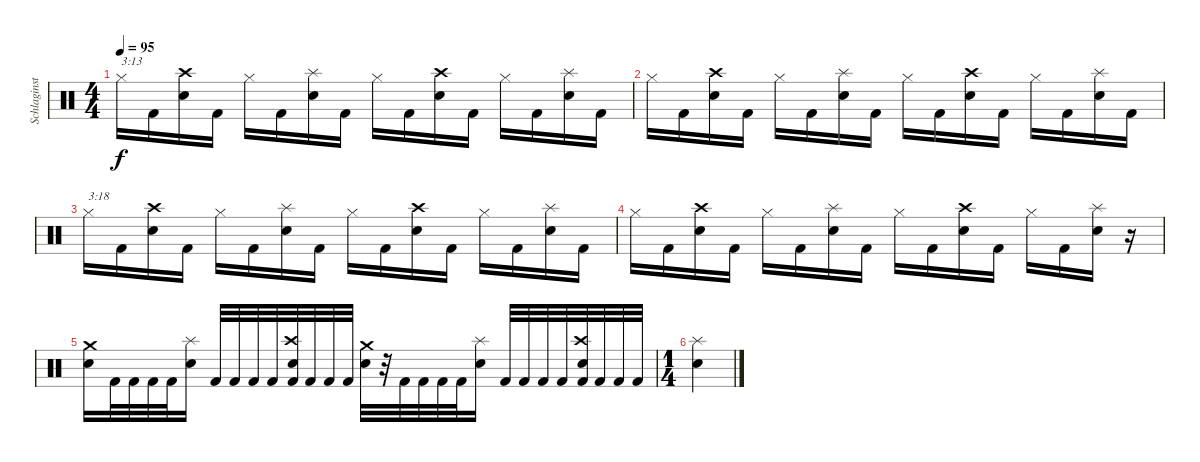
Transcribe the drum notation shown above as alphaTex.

\track ("Schlaginstrumente - Auswahl" "Schlaginst") {instrument percussion}
\staff {score}
\articulation defaults
\ts (4 4)
\tempo 95
\clef neutral
\ks c "Hi-Hat (closed)".16{txt "3:13" dy f} "Kick (hit) 2".16
("Crash high (hit)" "Electric Snare (hit)").16 "Kick (hit) 2".16 "Hi-Hat (closed)".16 "Kick (hit) 2".16 ("Splash (hit)" "Electric Snare (hit)").16 "Kick (hit) 2".16 "Hi-Hat (closed)".16 "Kick (hit) 2".16 ("Crash high (hit)" "Electric Snare (hit)").16 "Kick (hit) 2".16 "Hi-Hat (closed)".16 "Kick (hit) 2".16 ("Splash (hit)" "Electric Snare (hit)").16 "Kick (hit) 2".16 |
"Hi-Hat (closed)".16 "Kick (hit) 2".16 ("Crash high (hit)" "Electric Snare (hit)").16 "Kick (hit) 2".16 "Hi-Hat (closed)".16 "Kick (hit) 2".16 ("Splash (hit)" "Electric Snare (hit)").16 "Kick (hit) 2".16 "Hi-Hat (closed)".16 "Kick (hit) 2".16 ("Crash high (hit)" "Electric Snare (hit)").16 "Kick (hit) 2".16 "Hi-Hat (closed)".16 "Kick (hit) 2".16 ("Splash (hit)" "Electric Snare (hit)").16 "Kick (hit) 2".16 |
"Hi-Hat (closed)".16{txt "3:18"} "Kick (hit) 2".16 ("Crash high (hit)" "Electric Snare (hit)").16 "Kick (hit) 2".16 "Hi-Hat (closed)".16 "Kick (hit) 2".16 ("Splash (hit)" "Electric Snare (hit)").16 "Kick (hit) 2".16 "Hi-Hat (closed)".16 "Kick (hit) 2".16 ("Crash high (hit)" "Electric Snare (hit)").16 "Kick (hit) 2".16 "Hi-Hat (closed)".16 "Kick (hit) 2".16 ("Splash (hit)" "Electric Snare (hit)").16 "Kick (hit) 2".16 |
"Hi-Hat (closed)".16 "Kick (hit) 2".16 ("Crash high (hit)" "Electric Snare (hit)").16 "Kick (hit) 2".16 "Hi-Hat (closed)".16 "Kick (hit) 2".16 ("Splash (hit)" "Electric Snare (hit)").16 "Kick (hit) 2".16 "Hi-Hat (closed)".16 "Kick (hit) 2".16 ("Crash high (hit)" "Electric Snare (hit)").16 "Kick (hit) 2".16 "Hi-Hat (closed)".16 "Kick (hit) 2".16 ("Splash (hit)" "Electric Snare (hit)").16 r.16 |
("Crash medium (hit)" "Electric Snare (hit)").16 "Kick (hit) 2".32 "Kick (hit) 2".32 "Kick (hit) 2".32 "Kick (hit) 2".32 ("Splash (hit)" "Electric Snare (hit)").16 "Kick (hit) 2".32 "Kick (hit) 2".32 "Kick (hit) 2".32 "Kick (hit) 2".32 ("Crash high (hit)" "Electric Snare (hit)" "Kick (hit) 2").32 "Kick (hit) 2".32 "Kick (hit) 2".32 "Kick (hit) 2".32 ("Crash medium (hit)" "Electric Snare (hit)").32 r.32 "Kick (hit) 2".32 "Kick (hit) 2".32 "Kick (hit) 2".32 "Kick (hit) 2".32 ("Splash (hit)" "Electric Snare (hit)").16 "Kick (hit) 2".32 "Kick (hit) 2".32 "Kick (hit) 2".32 "Kick (hit) 2".32 ("Crash high (hit)" "Electric Snare (hit)" "Kick (hit) 2").32 "Kick (hit) 2".32 "Kick (hit) 2".32 "Kick (hit) 2".32 |
\ts (1 4)
("Splash (hit)" "Electric Snare (hit)").4
